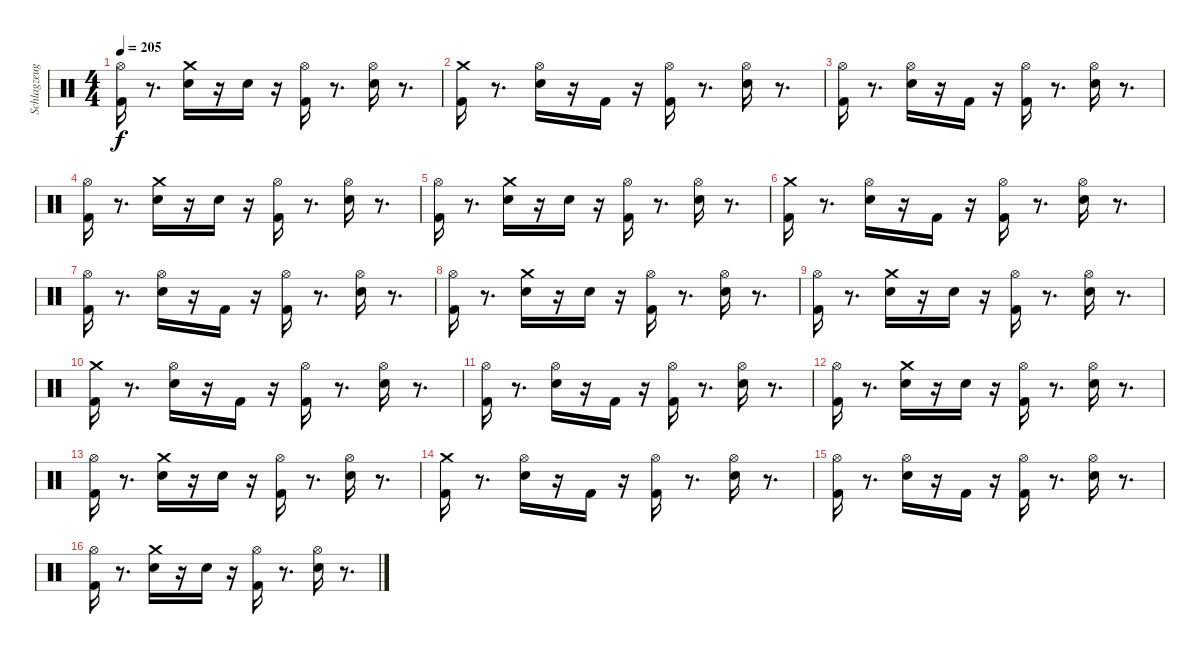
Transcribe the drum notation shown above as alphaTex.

\track ("Schlagzeug - Bela B." "Schlagzeug") {instrument percussion}
\staff {score}
\articulation defaults
\ts (4 4)
\tempo 205
\clef neutral
\ks c
("Kick (hit) 2" "Hi-Hat (open)").16{dy f} r.8{d} ("Electric Snare (hit)" "Crash medium (hit)").16 r.16 "Electric Snare (hit)".16 r.16 ("Kick (hit) 2" "Hi-Hat (open)").16 r.8{d} ("Electric Snare (hit)" "Hi-Hat (open)").16 r.8{d} |
("Kick (hit) 2" "Crash medium (hit)").16 r.8{d} ("Electric Snare (hit)" "Hi-Hat (open)").16 r.16 "Kick (hit) 2".16 r.16 ("Kick (hit) 2" "Hi-Hat (open)").16 r.8{d} ("Electric Snare (hit)" "Hi-Hat (open)").16 r.8{d} |
("Kick (hit) 2" "Hi-Hat (open)").16 r.8{d} ("Electric Snare (hit)" "Hi-Hat (open)").16 r.16 "Kick (hit) 2".16 r.16 ("Kick (hit) 2" "Hi-Hat (open)").16 r.8{d} ("Electric Snare (hit)" "Hi-Hat (open)").16 r.8{d} |
("Kick (hit) 2" "Hi-Hat (open)").16 r.8{d} ("Electric Snare (hit)" "Crash medium (hit)").16 r.16 "Electric Snare (hit)".16 r.16 ("Kick (hit) 2" "Hi-Hat (open)").16 r.8{d} ("Electric Snare (hit)" "Hi-Hat (open)").16 r.8{d} |
("Kick (hit) 2" "Hi-Hat (open)").16 r.8{d} ("Electric Snare (hit)" "Crash medium (hit)").16 r.16 "Electric Snare (hit)".16 r.16 ("Kick (hit) 2" "Hi-Hat (open)").16 r.8{d} ("Electric Snare (hit)" "Hi-Hat (open)").16 r.8{d} |
("Kick (hit) 2" "Crash medium (hit)").16 r.8{d} ("Electric Snare (hit)" "Hi-Hat (open)").16 r.16 "Kick (hit) 2".16 r.16 ("Kick (hit) 2" "Hi-Hat (open)").16 r.8{d} ("Electric Snare (hit)" "Hi-Hat (open)").16 r.8{d} |
("Kick (hit) 2" "Hi-Hat (open)").16 r.8{d} ("Electric Snare (hit)" "Hi-Hat (open)").16 r.16 "Kick (hit) 2".16 r.16 ("Kick (hit) 2" "Hi-Hat (open)").16 r.8{d} ("Electric Snare (hit)" "Hi-Hat (open)").16 r.8{d} |
("Kick (hit) 2" "Hi-Hat (open)").16 r.8{d} ("Electric Snare (hit)" "Crash medium (hit)").16 r.16 "Electric Snare (hit)".16 r.16 ("Kick (hit) 2" "Hi-Hat (open)").16 r.8{d} ("Electric Snare (hit)" "Hi-Hat (open)").16 r.8{d} |
("Kick (hit) 2" "Hi-Hat (open)").16 r.8{d} ("Electric Snare (hit)" "Crash medium (hit)").16 r.16 "Electric Snare (hit)".16 r.16 ("Kick (hit) 2" "Hi-Hat (open)").16 r.8{d} ("Electric Snare (hit)" "Hi-Hat (open)").16 r.8{d} |
("Kick (hit) 2" "Crash medium (hit)").16 r.8{d} ("Electric Snare (hit)" "Hi-Hat (open)").16 r.16 "Kick (hit) 2".16 r.16 ("Kick (hit) 2" "Hi-Hat (open)").16 r.8{d} ("Electric Snare (hit)" "Hi-Hat (open)").16 r.8{d} |
("Kick (hit) 2" "Hi-Hat (open)").16 r.8{d} ("Electric Snare (hit)" "Hi-Hat (open)").16 r.16 "Kick (hit) 2".16 r.16 ("Kick (hit) 2" "Hi-Hat (open)").16 r.8{d} ("Electric Snare (hit)" "Hi-Hat (open)").16 r.8{d} |
("Kick (hit) 2" "Hi-Hat (open)").16 r.8{d} ("Electric Snare (hit)" "Crash medium (hit)").16 r.16 "Electric Snare (hit)".16 r.16 ("Kick (hit) 2" "Hi-Hat (open)").16 r.8{d} ("Electric Snare (hit)" "Hi-Hat (open)").16 r.8{d} |
("Kick (hit) 2" "Hi-Hat (open)").16{volume 12} r.8{d} ("Electric Snare (hit)" "Crash medium (hit)").16{volume 12} r.16 "Electric Snare (hit)".16{volume 12} r.16 ("Kick (hit) 2" "Hi-Hat (open)").16{volume 12} r.8{d} ("Electric Snare (hit)" "Hi-Hat (open)").16{volume 12} r.8{d} |
("Kick (hit) 2" "Crash medium (hit)").16{volume 12} r.8{d} ("Electric Snare (hit)" "Hi-Hat (open)").16{volume 11} r.16 "Kick (hit) 2".16{volume 11} r.16 ("Kick (hit) 2" "Hi-Hat (open)").16{volume 11} r.8{d} ("Electric Snare (hit)" "Hi-Hat (open)").16{volume 11} r.8{d} |
("Kick (hit) 2" "Hi-Hat (open)").16{volume 10} r.8{d} ("Electric Snare (hit)" "Hi-Hat (open)").16{volume 10} r.16 "Kick (hit) 2".16{volume 10} r.16 ("Kick (hit) 2" "Hi-Hat (open)").16{volume 10} r.8{d} ("Electric Snare (hit)" "Hi-Hat (open)").16{volume 9} r.8{d} |
("Kick (hit) 2" "Hi-Hat (open)").16{volume 9} r.8{d} ("Electric Snare (hit)" "Crash medium (hit)").16{volume 9} r.16 "Electric Snare (hit)".16{volume 9} r.16 ("Kick (hit) 2" "Hi-Hat (open)").16{volume 9} r.8{d} ("Electric Snare (hit)" "Hi-Hat (open)").16{volume 8} r.8{d}
